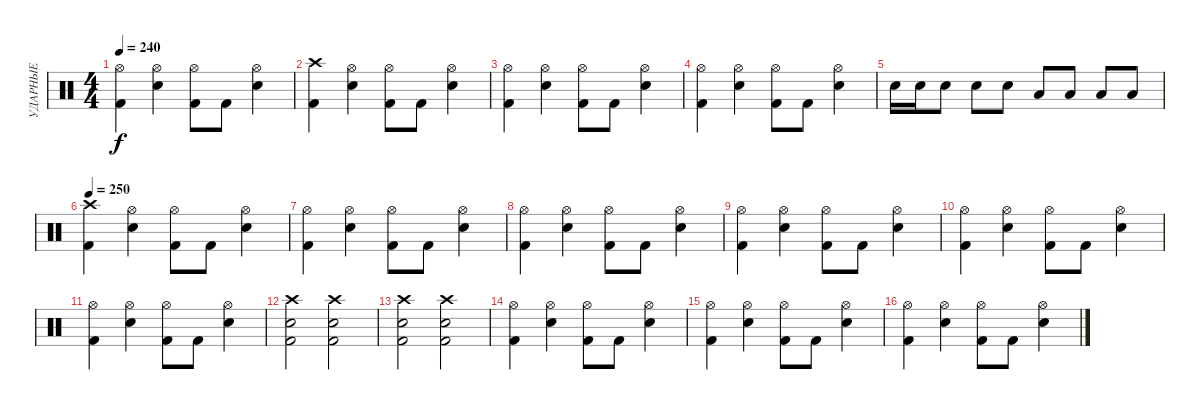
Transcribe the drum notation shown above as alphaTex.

\track ("УДАРНЫЕ" "УДАРНЫЕ") {instrument percussion}
\staff {score}
\articulation defaults
\ts (4 4)
\tempo 240
\clef neutral
\ks c
("Kick (hit) 2" "Hi-Hat (open)").4{dy f} ("Snare (hit) 2" "Hi-Hat (open)").4 ("Kick (hit) 2" "Hi-Hat (open)").8 "Kick (hit) 2".8 ("Snare (hit) 2" "Hi-Hat (open)").4 |
("Kick (hit) 2" "Crash high (hit)").4 ("Snare (hit) 2" "Hi-Hat (open)").4 ("Kick (hit) 2" "Hi-Hat (open)").8 "Kick (hit) 2".8 ("Snare (hit) 2" "Hi-Hat (open)").4 |
("Kick (hit) 2" "Hi-Hat (open)").4 ("Snare (hit) 2" "Hi-Hat (open)").4 ("Kick (hit) 2" "Hi-Hat (open)").8 "Kick (hit) 2".8 ("Snare (hit) 2" "Hi-Hat (open)").4 |
("Kick (hit) 2" "Hi-Hat (open)").4 ("Snare (hit) 2" "Hi-Hat (open)").4 ("Kick (hit) 2" "Hi-Hat (open)").8 "Kick (hit) 2".8 ("Snare (hit) 2" "Hi-Hat (open)").4 |
"Electric Snare (hit)".16 "Electric Snare (hit)".16 "Electric Snare (hit)".8 "Electric Snare (hit)".8 "Electric Snare (hit)".8 "Low Tom (hit)".8 "Low Tom (hit)".8 "Low Tom (hit)".8 "Low Tom (hit)".8 |
\tempo 250
("Kick (hit) 2" "Crash high (hit)").4 ("Snare (hit) 2" "Hi-Hat (open)").4 ("Kick (hit) 2" "Hi-Hat (open)").8 "Kick (hit) 2".8 ("Snare (hit) 2" "Hi-Hat (open)").4 |
("Kick (hit) 2" "Hi-Hat (open)").4 ("Snare (hit) 2" "Hi-Hat (open)").4 ("Kick (hit) 2" "Hi-Hat (open)").8 "Kick (hit) 2".8 ("Snare (hit) 2" "Hi-Hat (open)").4 |
("Kick (hit) 2" "Hi-Hat (open)").4 ("Snare (hit) 2" "Hi-Hat (open)").4 ("Kick (hit) 2" "Hi-Hat (open)").8 "Kick (hit) 2".8 ("Snare (hit) 2" "Hi-Hat (open)").4 |
("Kick (hit) 2" "Hi-Hat (open)").4 ("Snare (hit) 2" "Hi-Hat (open)").4 ("Kick (hit) 2" "Hi-Hat (open)").8 "Kick (hit) 2".8 ("Snare (hit) 2" "Hi-Hat (open)").4 |
("Kick (hit) 2" "Hi-Hat (open)").4 ("Snare (hit) 2" "Hi-Hat (open)").4 ("Kick (hit) 2" "Hi-Hat (open)").8 "Kick (hit) 2".8 ("Snare (hit) 2" "Hi-Hat (open)").4 |
("Kick (hit) 2" "Hi-Hat (open)").4 ("Snare (hit) 2" "Hi-Hat (open)").4 ("Kick (hit) 2" "Hi-Hat (open)").8 "Kick (hit) 2".8 ("Snare (hit) 2" "Hi-Hat (open)").4 |
("Snare (hit) 2" "Crash high (hit)" "Kick (hit) 2").2 ("Snare (hit) 2" "Crash high (hit)" "Kick (hit) 2").2 |
("Snare (hit) 2" "Crash high (hit)" "Kick (hit) 2").2 ("Snare (hit) 2" "Crash high (hit)" "Kick (hit) 2").2 |
("Kick (hit) 2" "Hi-Hat (open)").4 ("Snare (hit) 2" "Hi-Hat (open)").4 ("Kick (hit) 2" "Hi-Hat (open)").8 "Kick (hit) 2".8 ("Snare (hit) 2" "Hi-Hat (open)").4 |
("Kick (hit) 2" "Hi-Hat (open)").4 ("Snare (hit) 2" "Hi-Hat (open)").4 ("Kick (hit) 2" "Hi-Hat (open)").8 "Kick (hit) 2".8 ("Snare (hit) 2" "Hi-Hat (open)").4 |
("Kick (hit) 2" "Hi-Hat (open)").4 ("Snare (hit) 2" "Hi-Hat (open)").4 ("Kick (hit) 2" "Hi-Hat (open)").8 "Kick (hit) 2".8 ("Snare (hit) 2" "Hi-Hat (open)").4
